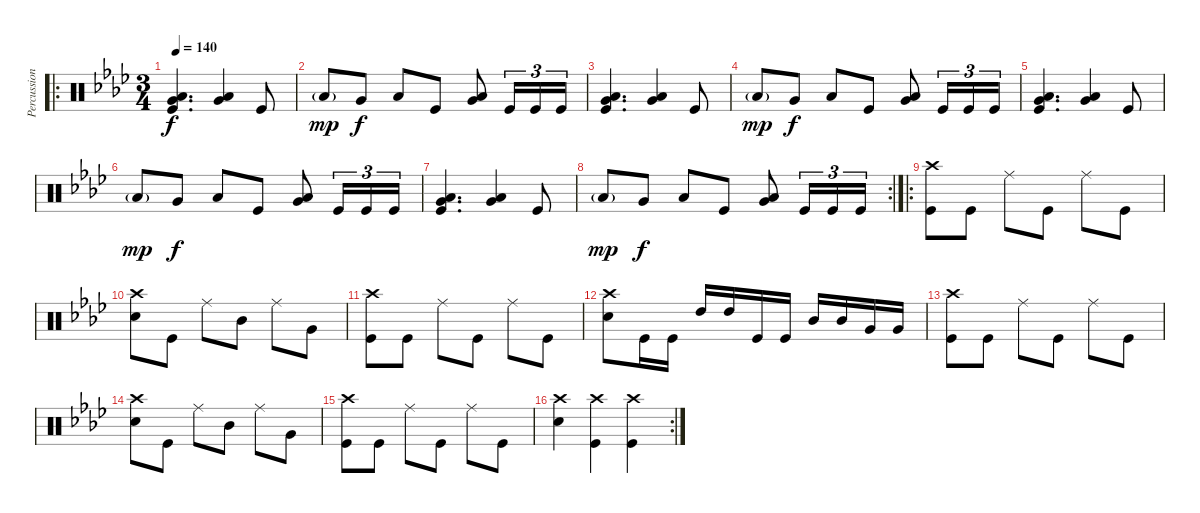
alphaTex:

\track ("Percussion" "Percussion") {instrument percussion}
\staff {score}
\articulation defaults
\ro
\ts (3 4)
\tempo 140
\clef neutral
\ks ab
("Low Floor Tom (hit)" "Very Low Tom (hit)" "Kick (hit)").4{d dy f} ("Low Floor Tom (hit)" "Very Low Tom (hit)").4 "Kick (hit)".8 |
"Low Floor Tom (hit)"{g}.8{dy mp} "Very Low Tom (hit)".8{dy f} "Low Floor Tom (hit)".8 "Kick (hit)".8 ("Very Low Tom (hit)" "Low Floor Tom (hit)").8 "Kick (hit)".16{tu (3 2)} "Kick (hit)".16{tu (3 2)} "Kick (hit)".16{tu (3 2)} |
("Low Floor Tom (hit)" "Very Low Tom (hit)" "Kick (hit)").4{d} ("Low Floor Tom (hit)" "Very Low Tom (hit)").4 "Kick (hit)".8 |
"Low Floor Tom (hit)"{g}.8{dy mp} "Very Low Tom (hit)".8{dy f} "Low Floor Tom (hit)".8 "Kick (hit)".8 ("Very Low Tom (hit)" "Low Floor Tom (hit)").8 "Kick (hit)".16{tu (3 2)} "Kick (hit)".16{tu (3 2)} "Kick (hit)".16{tu (3 2)} |
("Low Floor Tom (hit)" "Very Low Tom (hit)" "Kick (hit)").4{d} ("Low Floor Tom (hit)" "Very Low Tom (hit)").4 "Kick (hit)".8 |
"Low Floor Tom (hit)"{g}.8{dy mp} "Very Low Tom (hit)".8{dy f} "Low Floor Tom (hit)".8 "Kick (hit)".8 ("Very Low Tom (hit)" "Low Floor Tom (hit)").8 "Kick (hit)".16{tu (3 2)} "Kick (hit)".16{tu (3 2)} "Kick (hit)".16{tu (3 2)} |
("Low Floor Tom (hit)" "Very Low Tom (hit)" "Kick (hit)").4{d} ("Low Floor Tom (hit)" "Very Low Tom (hit)").4 "Kick (hit)".8 |
\rc 2 "Low Floor Tom (hit)"{g}.8{dy mp} "Very Low Tom (hit)".8{dy f} "Low Floor Tom (hit)".8 "Kick (hit)".8
("Very Low Tom (hit)" "Low Floor Tom (hit)").8 "Kick (hit)".16{tu (3 2)} "Kick (hit)".16{tu (3 2)} "Kick (hit)".16{tu (3 2)} |
\ro
("Crash high (hit)" "Kick (hit)").8 "Kick (hit)".8 "Ride (middle)".8 "Kick (hit)".8 "Ride (middle)".8 "Kick (hit)".8 |
("Crash high (hit)" "Snare (hit) 2").8 "Kick (hit)".8 "Ride (middle)".8 "Mid Tom (hit)".8 "Ride (middle)".8 "Very Low Tom (hit)".8 |
("Crash high (hit)" "Kick (hit)").8 "Kick (hit)".8 "Ride (middle)".8 "Kick (hit)".8 "Ride (middle)".8 "Kick (hit)".8 |
("Crash high (hit)" "Snare (hit) 2").8 "Kick (hit)".16 "Kick (hit)".16 "High Tom (hit)".16 "High Tom (hit)".16 "Kick (hit)".16 "Kick (hit)".16 "Mid Tom (hit)".16 "Mid Tom (hit)".16 "Very Low Tom (hit)".16 "Very Low Tom (hit)".16 |
("Crash high (hit)" "Kick (hit)").8 "Kick (hit)".8 "Ride (middle)".8 "Kick (hit)".8 "Ride (middle)".8 "Kick (hit)".8 |
("Crash high (hit)" "Snare (hit) 2").8 "Kick (hit)".8 "Ride (middle)".8 "Mid Tom (hit)".8 "Ride (middle)".8 "Very Low Tom (hit)".8 |
("Crash high (hit)" "Kick (hit)").8 "Kick (hit)".8 "Ride (middle)".8 "Kick (hit)".8 "Ride (middle)".8 "Kick (hit)".8 |
\rc 2
("Crash high (hit)" "Snare (hit) 2").4 ("Kick (hit)" "Crash high (hit)").4 ("Kick (hit)" "Crash high (hit)").4
